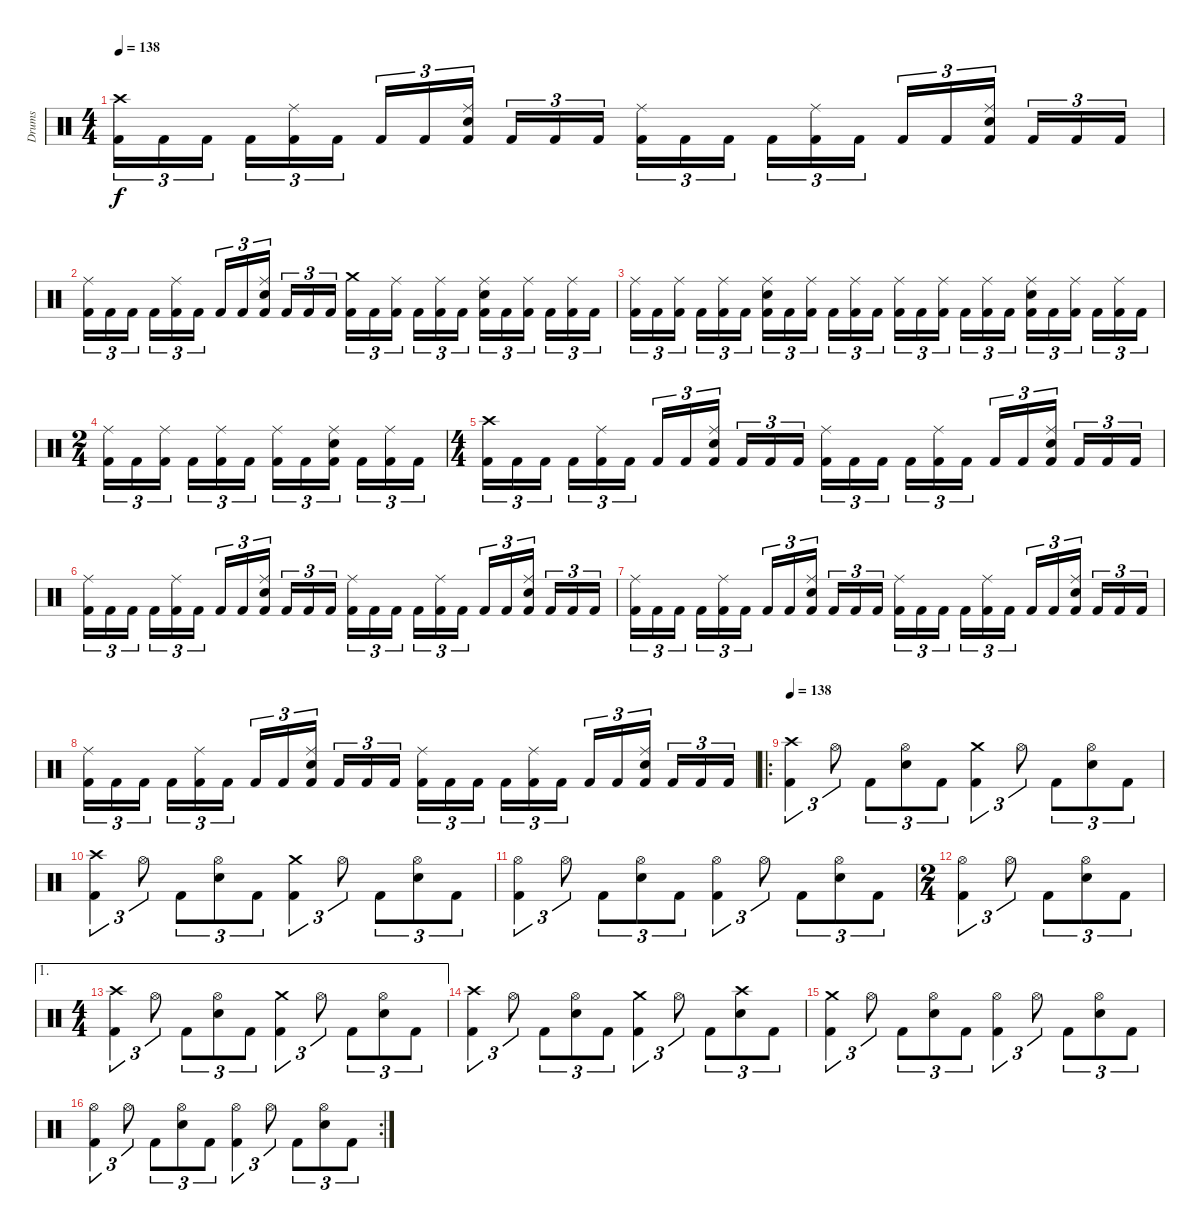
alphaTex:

\track ("Drums" "Drums") {instrument percussion}
\staff {score}
\articulation defaults
\ts (4 4)
\tempo 138
\clef neutral
\ks c
("Kick (hit) 2" "Crash high (hit)").16{tu (3 2) dy f} "Kick (hit) 2".16{tu (3 2)} "Kick (hit) 2".16{tu (3 2)} "Kick (hit) 2".16{tu (3 2)} ("Kick (hit) 2" "Ride (middle)").16{tu (3 2)} "Kick (hit) 2".16{tu (3 2)} "Kick (hit) 2".16{tu (3 2)} "Kick (hit) 2".16{tu (3 2)} ("Kick (hit) 2" "Electric Snare (hit)" "Ride (middle)").16{tu (3 2)} "Kick (hit) 2".16{tu (3 2)} "Kick (hit) 2".16{tu (3 2)} "Kick (hit) 2".16{tu (3 2)} ("Kick (hit) 2" "Ride (middle)").16{tu (3 2)} "Kick (hit) 2".16{tu (3 2)} "Kick (hit) 2".16{tu (3 2)} "Kick (hit) 2".16{tu (3 2)} ("Kick (hit) 2" "Ride (middle)").16{tu (3 2)} "Kick (hit) 2".16{tu (3 2)} "Kick (hit) 2".16{tu (3 2)} "Kick (hit) 2".16{tu (3 2)} ("Kick (hit) 2" "Electric Snare (hit)" "Ride (middle)").16{tu (3 2)} "Kick (hit) 2".16{tu (3 2)} "Kick (hit) 2".16{tu (3 2)} "Kick (hit) 2".16{tu (3 2)} |
("Kick (hit) 2" "Ride (middle)").16{tu (3 2)} "Kick (hit) 2".16{tu (3 2)} "Kick (hit) 2".16{tu (3 2)} "Kick (hit) 2".16{tu (3 2)} ("Kick (hit) 2" "Ride (middle)").16{tu (3 2)} "Kick (hit) 2".16{tu (3 2)} "Kick (hit) 2".16{tu (3 2)} "Kick (hit) 2".16{tu (3 2)} ("Kick (hit) 2" "Electric Snare (hit)" "Ride (middle)").16{tu (3 2)} "Kick (hit) 2".16{tu (3 2)} "Kick (hit) 2".16{tu (3 2)} "Kick (hit) 2".16{tu (3 2)} ("Kick (hit) 2" "Crash medium (hit)").16{tu (3 2)} "Kick (hit) 2".16{tu (3 2)} ("Kick (hit) 2" "Ride (middle)").16{tu (3 2)} "Kick (hit) 2".16{tu (3 2)} ("Kick (hit) 2" "Ride (middle)").16{tu (3 2)} "Kick (hit) 2".16{tu (3 2)} ("Kick (hit) 2" "Electric Snare (hit)" "Ride (middle)").16{tu (3 2)} "Kick (hit) 2".16{tu (3 2)} ("Kick (hit) 2" "Ride (middle)").16{tu (3 2)} "Kick (hit) 2".16{tu (3 2)} ("Kick (hit) 2" "Ride (middle)").16{tu (3 2)} "Kick (hit) 2".16{tu (3 2)} |
("Kick (hit) 2" "Ride (middle)").16{tu (3 2)} "Kick (hit) 2".16{tu (3 2)} ("Kick (hit) 2" "Ride (middle)").16{tu (3 2)} "Kick (hit) 2".16{tu (3 2)} ("Kick (hit) 2" "Ride (middle)").16{tu (3 2)} "Kick (hit) 2".16{tu (3 2)} ("Kick (hit) 2" "Electric Snare (hit)" "Ride (middle)").16{tu (3 2)} "Kick (hit) 2".16{tu (3 2)} ("Kick (hit) 2" "Ride (middle)").16{tu (3 2)} "Kick (hit) 2".16{tu (3 2)} ("Kick (hit) 2" "Ride (middle)").16{tu (3 2)} "Kick (hit) 2".16{tu (3 2)} ("Kick (hit) 2" "Ride (middle)").16{tu (3 2)} "Kick (hit) 2".16{tu (3 2)} ("Kick (hit) 2" "Ride (middle)").16{tu (3 2)} "Kick (hit) 2".16{tu (3 2)} ("Kick (hit) 2" "Ride (middle)").16{tu (3 2)} "Kick (hit) 2".16{tu (3 2)} ("Kick (hit) 2" "Electric Snare (hit)" "Ride (middle)").16{tu (3 2)} "Kick (hit) 2".16{tu (3 2)} ("Kick (hit) 2" "Ride (middle)").16{tu (3 2)} "Kick (hit) 2".16{tu (3 2)} ("Kick (hit) 2" "Ride (middle)").16{tu (3 2)} "Kick (hit) 2".16{tu (3 2)} |
\ts (2 4)
("Kick (hit) 2" "Ride (middle)").16{tu (3 2)} "Kick (hit) 2".16{tu (3 2)} ("Kick (hit) 2" "Ride (middle)").16{tu (3 2)} "Kick (hit) 2".16{tu (3 2)} ("Kick (hit) 2" "Ride (middle)").16{tu (3 2)} "Kick (hit) 2".16{tu (3 2)} ("Kick (hit) 2" "Ride (middle)").16{tu (3 2)} "Kick (hit) 2".16{tu (3 2)} ("Kick (hit) 2" "Electric Snare (hit)" "Ride (middle)").16{tu (3 2)} "Kick (hit) 2".16{tu (3 2)} ("Kick (hit) 2" "Ride (middle)").16{tu (3 2)} "Kick (hit) 2".16{tu (3 2)} |
\ts (4 4)
("Kick (hit) 2" "Crash high (hit)").16{tu (3 2)} "Kick (hit) 2".16{tu (3 2)} "Kick (hit) 2".16{tu (3 2)} "Kick (hit) 2".16{tu (3 2)} ("Kick (hit) 2" "Ride (middle)").16{tu (3 2)} "Kick (hit) 2".16{tu (3 2)} "Kick (hit) 2".16{tu (3 2)} "Kick (hit) 2".16{tu (3 2)} ("Kick (hit) 2" "Electric Snare (hit)" "Ride (middle)").16{tu (3 2)} "Kick (hit) 2".16{tu (3 2)} "Kick (hit) 2".16{tu (3 2)} "Kick (hit) 2".16{tu (3 2)} ("Kick (hit) 2" "Ride (middle)").16{tu (3 2)} "Kick (hit) 2".16{tu (3 2)} "Kick (hit) 2".16{tu (3 2)} "Kick (hit) 2".16{tu (3 2)} ("Kick (hit) 2" "Ride (middle)").16{tu (3 2)} "Kick (hit) 2".16{tu (3 2)} "Kick (hit) 2".16{tu (3 2)} "Kick (hit) 2".16{tu (3 2)} ("Kick (hit) 2" "Electric Snare (hit)" "Ride (middle)").16{tu (3 2)} "Kick (hit) 2".16{tu (3 2)} "Kick (hit) 2".16{tu (3 2)} "Kick (hit) 2".16{tu (3 2)} |
("Kick (hit) 2" "Ride (middle)").16{tu (3 2)} "Kick (hit) 2".16{tu (3 2)} "Kick (hit) 2".16{tu (3 2)} "Kick (hit) 2".16{tu (3 2)} ("Kick (hit) 2" "Ride (middle)").16{tu (3 2)} "Kick (hit) 2".16{tu (3 2)} "Kick (hit) 2".16{tu (3 2)} "Kick (hit) 2".16{tu (3 2)} ("Kick (hit) 2" "Electric Snare (hit)" "Ride (middle)").16{tu (3 2)} "Kick (hit) 2".16{tu (3 2)} "Kick (hit) 2".16{tu (3 2)} "Kick (hit) 2".16{tu (3 2)} ("Kick (hit) 2" "Ride (middle)").16{tu (3 2)} "Kick (hit) 2".16{tu (3 2)} "Kick (hit) 2".16{tu (3 2)} "Kick (hit) 2".16{tu (3 2)} ("Kick (hit) 2" "Ride (middle)").16{tu (3 2)} "Kick (hit) 2".16{tu (3 2)} "Kick (hit) 2".16{tu (3 2)} "Kick (hit) 2".16{tu (3 2)} ("Kick (hit) 2" "Electric Snare (hit)" "Ride (middle)").16{tu (3 2)} "Kick (hit) 2".16{tu (3 2)} "Kick (hit) 2".16{tu (3 2)} "Kick (hit) 2".16{tu (3 2)} |
("Kick (hit) 2" "Ride (middle)").16{tu (3 2)} "Kick (hit) 2".16{tu (3 2)} "Kick (hit) 2".16{tu (3 2)} "Kick (hit) 2".16{tu (3 2)} ("Kick (hit) 2" "Ride (middle)").16{tu (3 2)} "Kick (hit) 2".16{tu (3 2)} "Kick (hit) 2".16{tu (3 2)} "Kick (hit) 2".16{tu (3 2)} ("Kick (hit) 2" "Electric Snare (hit)" "Ride (middle)").16{tu (3 2)} "Kick (hit) 2".16{tu (3 2)} "Kick (hit) 2".16{tu (3 2)} "Kick (hit) 2".16{tu (3 2)} ("Kick (hit) 2" "Ride (middle)").16{tu (3 2)} "Kick (hit) 2".16{tu (3 2)} "Kick (hit) 2".16{tu (3 2)} "Kick (hit) 2".16{tu (3 2)} ("Kick (hit) 2" "Ride (middle)").16{tu (3 2)} "Kick (hit) 2".16{tu (3 2)} "Kick (hit) 2".16{tu (3 2)} "Kick (hit) 2".16{tu (3 2)} ("Kick (hit) 2" "Electric Snare (hit)" "Ride (middle)").16{tu (3 2)} "Kick (hit) 2".16{tu (3 2)} "Kick (hit) 2".16{tu (3 2)} "Kick (hit) 2".16{tu (3 2)} |
("Kick (hit) 2" "Ride (middle)").16{tu (3 2)} "Kick (hit) 2".16{tu (3 2)} "Kick (hit) 2".16{tu (3 2)} "Kick (hit) 2".16{tu (3 2)} ("Kick (hit) 2" "Ride (middle)").16{tu (3 2)} "Kick (hit) 2".16{tu (3 2)} "Kick (hit) 2".16{tu (3 2)} "Kick (hit) 2".16{tu (3 2)} ("Kick (hit) 2" "Electric Snare (hit)" "Ride (middle)").16{tu (3 2)} "Kick (hit) 2".16{tu (3 2)} "Kick (hit) 2".16{tu (3 2)} "Kick (hit) 2".16{tu (3 2)} ("Kick (hit) 2" "Ride (middle)").16{tu (3 2)} "Kick (hit) 2".16{tu (3 2)} "Kick (hit) 2".16{tu (3 2)} "Kick (hit) 2".16{tu (3 2)} ("Kick (hit) 2" "Ride (middle)").16{tu (3 2)} "Kick (hit) 2".16{tu (3 2)} "Kick (hit) 2".16{tu (3 2)} "Kick (hit) 2".16{tu (3 2)} ("Kick (hit) 2" "Electric Snare (hit)" "Ride (middle)").16{tu (3 2)} "Kick (hit) 2".16{tu (3 2)} "Kick (hit) 2".16{tu (3 2)} "Kick (hit) 2".16{tu (3 2)} |
\ro
\tempo 138
("Kick (hit) 2" "Crash high (hit)").4{tu (3 2)} "Hi-Hat (open)".8{tu (3 2)} "Kick (hit) 2".8{tu (3 2)} ("Electric Snare (hit)" "Hi-Hat (open)").8{tu (3 2)} "Kick (hit) 2".8{tu (3 2)} ("Kick (hit) 2" "Crash medium (hit)").4{tu (3 2)} "Hi-Hat (open)".8{tu (3 2)} "Kick (hit) 2".8{tu (3 2)} ("Electric Snare (hit)" "Hi-Hat (open)").8{tu (3 2)} "Kick (hit) 2".8{tu (3 2)} |
("Kick (hit) 2" "Crash high (hit)").4{tu (3 2)} "Hi-Hat (open)".8{tu (3 2)} "Kick (hit) 2".8{tu (3 2)} ("Electric Snare (hit)" "Hi-Hat (open)").8{tu (3 2)} "Kick (hit) 2".8{tu (3 2)} ("Kick (hit) 2" "Crash medium (hit)").4{tu (3 2)} "Hi-Hat (open)".8{tu (3 2)} "Kick (hit) 2".8{tu (3 2)} ("Electric Snare (hit)" "Hi-Hat (open)").8{tu (3 2)} "Kick (hit) 2".8{tu (3 2)} |
("Kick (hit) 2" "Hi-Hat (open)").4{tu (3 2)} "Hi-Hat (open)".8{tu (3 2)} "Kick (hit) 2".8{tu (3 2)} ("Electric Snare (hit)" "Hi-Hat (open)").8{tu (3 2)} "Kick (hit) 2".8{tu (3 2)} ("Kick (hit) 2" "Hi-Hat (open)").4{tu (3 2)} "Hi-Hat (open)".8{tu (3 2)} "Kick (hit) 2".8{tu (3 2)} ("Electric Snare (hit)" "Hi-Hat (open)").8{tu (3 2)} "Kick (hit) 2".8{tu (3 2)} |
\ts (2 4)
("Kick (hit) 2" "Hi-Hat (open)").4{tu (3 2)} "Hi-Hat (open)".8{tu (3 2)} "Kick (hit) 2".8{tu (3 2)} ("Electric Snare (hit)" "Hi-Hat (open)").8{tu (3 2)} "Kick (hit) 2".8{tu (3 2)} |
\ae 1
\ts (4 4)
("Kick (hit) 2" "Crash high (hit)").4{tu (3 2)} "Hi-Hat (open)".8{tu (3 2)} "Kick (hit) 2".8{tu (3 2)} ("Electric Snare (hit)" "Hi-Hat (open)").8{tu (3 2)} "Kick (hit) 2".8{tu (3 2)} ("Kick (hit) 2" "Crash medium (hit)").4{tu (3 2)} "Hi-Hat (open)".8{tu (3 2)} "Kick (hit) 2".8{tu (3 2)} ("Electric Snare (hit)" "Hi-Hat (open)").8{tu (3 2)} "Kick (hit) 2".8{tu (3 2)} |
("Kick (hit) 2" "Crash high (hit)").4{tu (3 2)} "Hi-Hat (open)".8{tu (3 2)} "Kick (hit) 2".8{tu (3 2)} ("Electric Snare (hit)" "Hi-Hat (open)").8{tu (3 2)} "Kick (hit) 2".8{tu (3 2)} ("Kick (hit) 2" "Crash medium (hit)").4{tu (3 2)} "Hi-Hat (open)".8{tu (3 2)} "Kick (hit) 2".8{tu (3 2)} ("Electric Snare (hit)" "Crash high (hit)").8{tu (3 2)} "Kick (hit) 2".8{tu (3 2)} |
("Kick (hit) 2" "Crash medium (hit)").4{tu (3 2)} "Hi-Hat (open)".8{tu (3 2)} "Kick (hit) 2".8{tu (3 2)} ("Electric Snare (hit)" "Hi-Hat (open)").8{tu (3 2)} "Kick (hit) 2".8{tu (3 2)} ("Kick (hit) 2" "Hi-Hat (open)").4{tu (3 2)} "Hi-Hat (open)".8{tu (3 2)} "Kick (hit) 2".8{tu (3 2)} ("Electric Snare (hit)" "Hi-Hat (open)").8{tu (3 2)} "Kick (hit) 2".8{tu (3 2)} |
\rc 2
("Kick (hit) 2" "Hi-Hat (open)").4{tu (3 2)} "Hi-Hat (open)".8{tu (3 2)} "Kick (hit) 2".8{tu (3 2)} ("Electric Snare (hit)" "Hi-Hat (open)").8{tu (3 2)} "Kick (hit) 2".8{tu (3 2)} ("Kick (hit) 2" "Hi-Hat (open)").4{tu (3 2)} "Hi-Hat (open)".8{tu (3 2)} "Kick (hit) 2".8{tu (3 2)} ("Electric Snare (hit)" "Hi-Hat (open)").8{tu (3 2)} "Kick (hit) 2".8{tu (3 2)}
